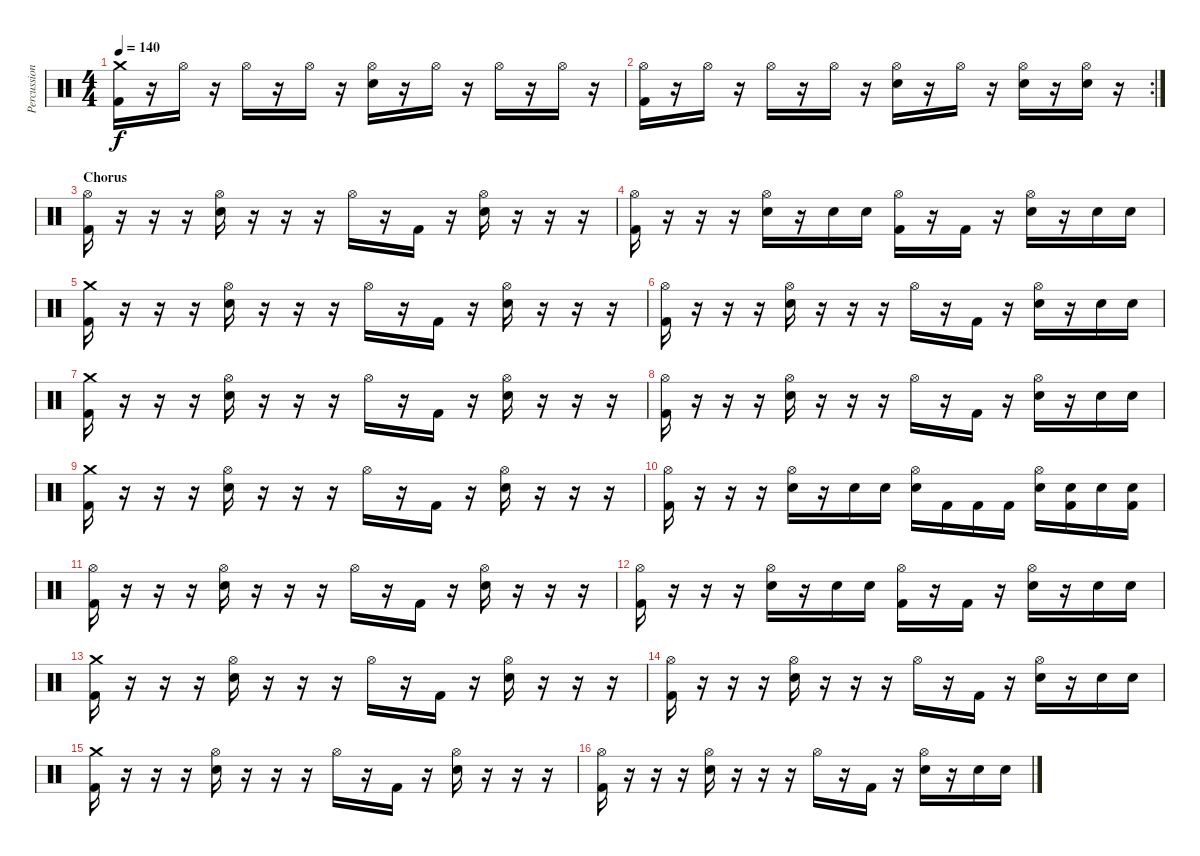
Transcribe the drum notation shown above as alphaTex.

\track ("Percussion" "Percussion") {instrument percussion}
\staff {score}
\articulation defaults
\ts (4 4)
\tempo 140
\clef neutral
\ks c
("Crash medium (hit)" "Kick (hit) 2").16{dy f} r.16 "Hi-Hat (open)".16 r.16 "Hi-Hat (open)".16 r.16 "Hi-Hat (open)".16 r.16 ("Hi-Hat (open)" "Snare (hit) 2").16 r.16 "Hi-Hat (open)".16 r.16 "Hi-Hat (open)".16 r.16 "Hi-Hat (open)".16 r.16 |
\rc 2
("Hi-Hat (open)" "Kick (hit) 2").16 r.16 "Hi-Hat (open)".16 r.16 "Hi-Hat (open)".16 r.16 "Hi-Hat (open)".16 r.16 ("Hi-Hat (open)" "Snare (hit) 2").16 r.16 "Hi-Hat (open)".16 r.16 ("Hi-Hat (open)" "Snare (hit) 2").16 r.16 ("Hi-Hat (open)" "Snare (hit) 2").16 r.16 |
\section ("" "Chorus")
("Hi-Hat (open)" "Kick (hit) 2").16 r.16 r.16 r.16 ("Hi-Hat (open)" "Snare (hit) 2").16 r.16 r.16 r.16 "Hi-Hat (open)".16 r.16 "Kick (hit) 2".16 r.16 ("Hi-Hat (open)" "Snare (hit) 2").16 r.16 r.16 r.16 |
("Hi-Hat (open)" "Kick (hit) 2").16 r.16 r.16 r.16 ("Hi-Hat (open)" "Snare (hit) 2").16 r.16 "Snare (hit) 2".16 "Snare (hit) 2".16 ("Hi-Hat (open)" "Kick (hit) 2").16 r.16 "Kick (hit) 2".16 r.16 ("Hi-Hat (open)" "Snare (hit) 2").16 r.16 "Snare (hit) 2".16 "Snare (hit) 2".16 |
("Crash medium (hit)" "Kick (hit) 2").16 r.16 r.16 r.16 ("Hi-Hat (open)" "Snare (hit) 2").16 r.16 r.16 r.16 "Hi-Hat (open)".16 r.16 "Kick (hit) 2".16 r.16 ("Hi-Hat (open)" "Snare (hit) 2").16 r.16 r.16 r.16 |
("Hi-Hat (open)" "Kick (hit) 2").16 r.16 r.16 r.16 ("Hi-Hat (open)" "Snare (hit) 2").16 r.16 r.16 r.16 "Hi-Hat (open)".16 r.16 "Kick (hit) 2".16 r.16 ("Hi-Hat (open)" "Snare (hit) 2").16 r.16 "Snare (hit) 2".16 "Snare (hit) 2".16 |
("Crash medium (hit)" "Kick (hit) 2").16 r.16 r.16 r.16 ("Hi-Hat (open)" "Snare (hit) 2").16 r.16 r.16 r.16 "Hi-Hat (open)".16 r.16 "Kick (hit) 2".16 r.16 ("Hi-Hat (open)" "Snare (hit) 2").16 r.16 r.16 r.16 |
("Hi-Hat (open)" "Kick (hit) 2").16 r.16 r.16 r.16 ("Hi-Hat (open)" "Snare (hit) 2").16 r.16 r.16 r.16 "Hi-Hat (open)".16 r.16 "Kick (hit) 2".16 r.16 ("Hi-Hat (open)" "Snare (hit) 2").16 r.16 "Snare (hit) 2".16 "Snare (hit) 2".16 |
("Crash medium (hit)" "Kick (hit) 2").16 r.16 r.16 r.16 ("Hi-Hat (open)" "Snare (hit) 2").16 r.16 r.16 r.16 "Hi-Hat (open)".16 r.16 "Kick (hit) 2".16 r.16 ("Hi-Hat (open)" "Snare (hit) 2").16 r.16 r.16 r.16 |
("Hi-Hat (open)" "Kick (hit) 2").16 r.16 r.16 r.16 ("Hi-Hat (open)" "Snare (hit) 2").16 r.16 "Snare (hit) 2".16 "Snare (hit) 2".16 ("Hi-Hat (open)" "Snare (hit) 2").16 "Kick (hit) 2".16 "Kick (hit) 2".16 "Kick (hit) 2".16 ("Hi-Hat (open)" "Snare (hit) 2").16 ("Snare (hit) 2" "Kick (hit) 2").16 "Snare (hit) 2".16 ("Snare (hit) 2" "Kick (hit) 2").16 |
("Hi-Hat (open)" "Kick (hit) 2").16 r.16 r.16 r.16 ("Hi-Hat (open)" "Snare (hit) 2").16 r.16 r.16 r.16 "Hi-Hat (open)".16 r.16 "Kick (hit) 2".16 r.16 ("Hi-Hat (open)" "Snare (hit) 2").16 r.16 r.16 r.16 |
("Hi-Hat (open)" "Kick (hit) 2").16 r.16 r.16 r.16 ("Hi-Hat (open)" "Snare (hit) 2").16 r.16 "Snare (hit) 2".16 "Snare (hit) 2".16 ("Hi-Hat (open)" "Kick (hit) 2").16 r.16 "Kick (hit) 2".16 r.16 ("Hi-Hat (open)" "Snare (hit) 2").16 r.16 "Snare (hit) 2".16 "Snare (hit) 2".16 |
("Crash medium (hit)" "Kick (hit) 2").16 r.16 r.16 r.16 ("Hi-Hat (open)" "Snare (hit) 2").16 r.16 r.16 r.16 "Hi-Hat (open)".16 r.16 "Kick (hit) 2".16 r.16 ("Hi-Hat (open)" "Snare (hit) 2").16 r.16 r.16 r.16 |
("Hi-Hat (open)" "Kick (hit) 2").16 r.16 r.16 r.16 ("Hi-Hat (open)" "Snare (hit) 2").16 r.16 r.16 r.16 "Hi-Hat (open)".16 r.16 "Kick (hit) 2".16 r.16 ("Hi-Hat (open)" "Snare (hit) 2").16 r.16 "Snare (hit) 2".16 "Snare (hit) 2".16 |
("Crash medium (hit)" "Kick (hit) 2").16 r.16 r.16 r.16 ("Hi-Hat (open)" "Snare (hit) 2").16 r.16 r.16 r.16 "Hi-Hat (open)".16 r.16 "Kick (hit) 2".16 r.16 ("Hi-Hat (open)" "Snare (hit) 2").16 r.16 r.16 r.16 |
("Hi-Hat (open)" "Kick (hit) 2").16 r.16 r.16 r.16 ("Hi-Hat (open)" "Snare (hit) 2").16 r.16 r.16 r.16 "Hi-Hat (open)".16 r.16 "Kick (hit) 2".16 r.16 ("Hi-Hat (open)" "Snare (hit) 2").16 r.16 "Snare (hit) 2".16 "Snare (hit) 2".16
